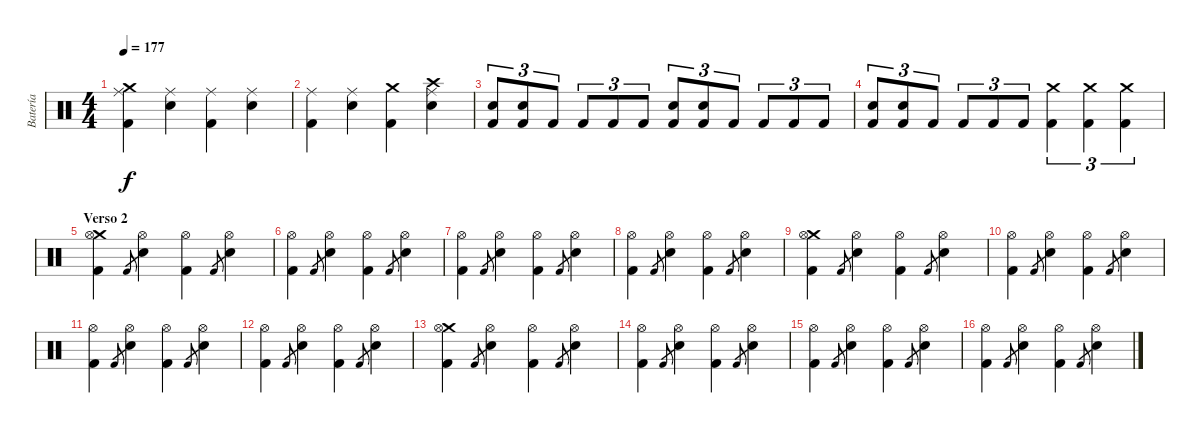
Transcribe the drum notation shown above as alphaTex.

\track ("Batería" "Batería") {instrument percussion}
\staff {score}
\articulation defaults
\ts (4 4)
\tempo 177
\clef neutral
\ks c
("Crash medium (hit)" "Ride (middle)" "Kick (hit) 2").4{dy f} ("Ride (middle)" "Snare (hit) 2").4 ("Ride (middle)" "Kick (hit) 2").4 ("Ride (middle)" "Snare (hit) 2").4 |
("Ride (middle)" "Kick (hit) 2").4 ("Ride (middle)" "Snare (hit) 2").4 ("Crash medium (hit)" "Kick (hit) 2").4 ("Crash high (hit)" "Ride (middle)" "Snare (hit) 2").4 |
("Snare (hit) 2" "Kick (hit) 2").8{tu (3 2)} ("Snare (hit) 2" "Kick (hit) 2").8{tu (3 2)} "Kick (hit) 2".8{tu (3 2)} "Kick (hit) 2".8{tu (3 2)} "Kick (hit) 2".8{tu (3 2)} "Kick (hit) 2".8{tu (3 2)} ("Snare (hit) 2" "Kick (hit) 2").8{tu (3 2)} ("Snare (hit) 2" "Kick (hit) 2").8{tu (3 2)} "Kick (hit) 2".8{tu (3 2)} "Kick (hit) 2".8{tu (3 2)} "Kick (hit) 2".8{tu (3 2)} "Kick (hit) 2".8{tu (3 2)} |
("Snare (hit) 2" "Kick (hit) 2").8{tu (3 2)} ("Snare (hit) 2" "Kick (hit) 2").8{tu (3 2)} "Kick (hit) 2".8{tu (3 2)} "Kick (hit) 2".8{tu (3 2)} "Kick (hit) 2".8{tu (3 2)} "Kick (hit) 2".8{tu (3 2)} ("Crash medium (hit)" "Kick (hit) 2").4{tu (3 2)} ("Crash medium (hit)" "Kick (hit) 2").4{tu (3 2)} ("Crash medium (hit)" "Kick (hit) 2").4{tu (3 2)} |
\section ("" "Verso 2")
("Crash medium (hit)" "Hi-Hat (open)" "Kick (hit) 2").4 "Kick (hit) 2".8{gr} ("Hi-Hat (open)" "Snare (hit) 2").4 ("Hi-Hat (open)" "Kick (hit) 2").4 "Kick (hit) 2".8{gr} ("Hi-Hat (open)" "Snare (hit) 2").4 |
("Hi-Hat (open)" "Kick (hit) 2").4 "Kick (hit) 2".8{gr} ("Hi-Hat (open)" "Snare (hit) 2").4 ("Hi-Hat (open)" "Kick (hit) 2").4 "Kick (hit) 2".8{gr} ("Hi-Hat (open)" "Snare (hit) 2").4 |
("Hi-Hat (open)" "Kick (hit) 2").4 "Kick (hit) 2".8{gr} ("Hi-Hat (open)" "Snare (hit) 2").4 ("Hi-Hat (open)" "Kick (hit) 2").4 "Kick (hit) 2".8{gr} ("Hi-Hat (open)" "Snare (hit) 2").4 |
("Hi-Hat (open)" "Kick (hit) 2").4 "Kick (hit) 2".8{gr} ("Hi-Hat (open)" "Snare (hit) 2").4 ("Hi-Hat (open)" "Kick (hit) 2").4 "Kick (hit) 2".8{gr} ("Hi-Hat (open)" "Snare (hit) 2").4 |
("Crash medium (hit)" "Hi-Hat (open)" "Kick (hit) 2").4 "Kick (hit) 2".8{gr} ("Hi-Hat (open)" "Snare (hit) 2").4 ("Hi-Hat (open)" "Kick (hit) 2").4 "Kick (hit) 2".8{gr} ("Hi-Hat (open)" "Snare (hit) 2").4 |
("Hi-Hat (open)" "Kick (hit) 2").4 "Kick (hit) 2".8{gr} ("Hi-Hat (open)" "Snare (hit) 2").4 ("Hi-Hat (open)" "Kick (hit) 2").4 "Kick (hit) 2".8{gr} ("Hi-Hat (open)" "Snare (hit) 2").4 |
("Hi-Hat (open)" "Kick (hit) 2").4 "Kick (hit) 2".8{gr} ("Hi-Hat (open)" "Snare (hit) 2").4 ("Hi-Hat (open)" "Kick (hit) 2").4 "Kick (hit) 2".8{gr} ("Hi-Hat (open)" "Snare (hit) 2").4 |
("Hi-Hat (open)" "Kick (hit) 2").4 "Kick (hit) 2".8{gr} ("Hi-Hat (open)" "Snare (hit) 2").4 ("Hi-Hat (open)" "Kick (hit) 2").4 "Kick (hit) 2".8{gr} ("Hi-Hat (open)" "Snare (hit) 2").4 |
("Crash medium (hit)" "Hi-Hat (open)" "Kick (hit) 2").4 "Kick (hit) 2".8{gr} ("Hi-Hat (open)" "Snare (hit) 2").4 ("Hi-Hat (open)" "Kick (hit) 2").4 "Kick (hit) 2".8{gr} ("Hi-Hat (open)" "Snare (hit) 2").4 |
("Hi-Hat (open)" "Kick (hit) 2").4 "Kick (hit) 2".8{gr} ("Hi-Hat (open)" "Snare (hit) 2").4 ("Hi-Hat (open)" "Kick (hit) 2").4 "Kick (hit) 2".8{gr} ("Hi-Hat (open)" "Snare (hit) 2").4 |
("Hi-Hat (open)" "Kick (hit) 2").4 "Kick (hit) 2".8{gr} ("Hi-Hat (open)" "Snare (hit) 2").4 ("Hi-Hat (open)" "Kick (hit) 2").4 "Kick (hit) 2".8{gr} ("Hi-Hat (open)" "Snare (hit) 2").4 |
("Hi-Hat (open)" "Kick (hit) 2").4 "Kick (hit) 2".8{gr} ("Hi-Hat (open)" "Snare (hit) 2").4 ("Hi-Hat (open)" "Kick (hit) 2").4 "Kick (hit) 2".8{gr} ("Hi-Hat (open)" "Snare (hit) 2").4
